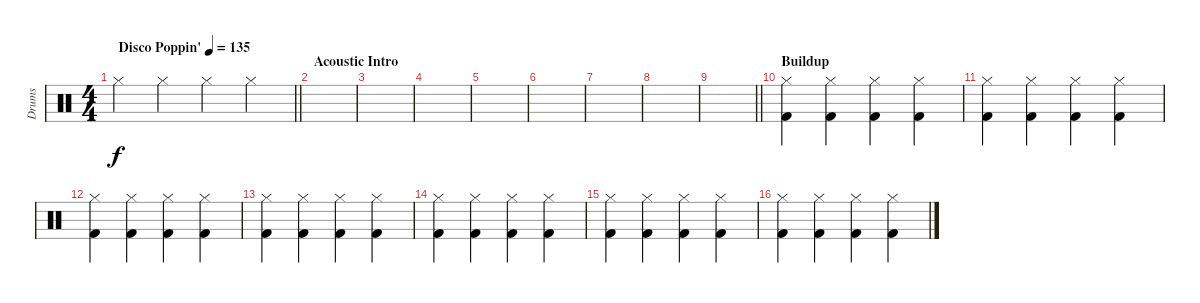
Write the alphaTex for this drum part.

\track ("Drums" "Drums") {instrument percussion}
\staff {score}
\articulation defaults
\ts (4 4)
\tempo (135 "Disco Poppin'")
\clef neutral
\barLineRight lightlight
\ks c "Hi-Hat (closed)".4{dy f} "Hi-Hat (closed)".4 "Hi-Hat (closed)".4 "Hi-Hat (closed)".4
|
\section ("" "Acoustic Intro")
|
|
|
|
|
|
|
\barLineRight lightlight
|
\section ("" "Buildup")
("Hi-Hat (closed)" "Kick (hit) 2").4 ("Hi-Hat (closed)" "Kick (hit) 2").4 ("Hi-Hat (closed)" "Kick (hit) 2").4 ("Hi-Hat (closed)" "Kick (hit) 2").4 |
("Hi-Hat (closed)" "Kick (hit) 2").4 ("Hi-Hat (closed)" "Kick (hit) 2").4 ("Hi-Hat (closed)" "Kick (hit) 2").4 ("Hi-Hat (closed)" "Kick (hit) 2").4 |
("Hi-Hat (closed)" "Kick (hit) 2").4 ("Hi-Hat (closed)" "Kick (hit) 2").4 ("Hi-Hat (closed)" "Kick (hit) 2").4 ("Hi-Hat (closed)" "Kick (hit) 2").4 |
("Hi-Hat (closed)" "Kick (hit) 2").4 ("Hi-Hat (closed)" "Kick (hit) 2").4 ("Hi-Hat (closed)" "Kick (hit) 2").4 ("Hi-Hat (closed)" "Kick (hit) 2").4 |
("Hi-Hat (closed)" "Kick (hit) 2").4 ("Hi-Hat (closed)" "Kick (hit) 2").4 ("Hi-Hat (closed)" "Kick (hit) 2").4 ("Hi-Hat (closed)" "Kick (hit) 2").4 |
("Hi-Hat (closed)" "Kick (hit) 2").4 ("Hi-Hat (closed)" "Kick (hit) 2").4 ("Hi-Hat (closed)" "Kick (hit) 2").4 ("Hi-Hat (closed)" "Kick (hit) 2").4 |
("Hi-Hat (closed)" "Kick (hit) 2").4 ("Hi-Hat (closed)" "Kick (hit) 2").4 ("Hi-Hat (closed)" "Kick (hit) 2").4 ("Hi-Hat (closed)" "Kick (hit) 2").4
